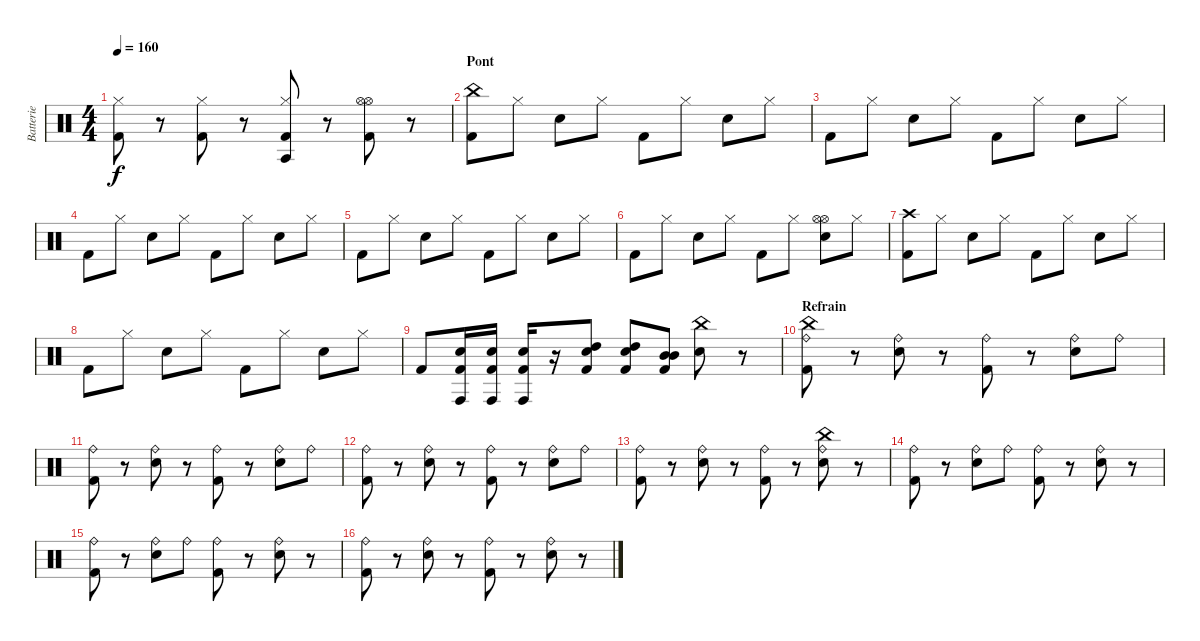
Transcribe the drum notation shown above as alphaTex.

\track ("Batterie" "Batterie") {instrument percussion}
\staff {score}
\articulation defaults
\ts (4 4)
\tempo 160
\clef neutral
\ks c
("Hi-Hat (closed)" "Kick (hit) 2").8{dy f} r.8 ("Hi-Hat (closed)" "Kick (hit) 2").8 r.8 ("Hi-Hat (closed)" "Agogo tow (hit)" "Kick (hit) 2").8 r.8 ("Hi-Hat (open)" "Hi-Hat (open)" "Kick (hit) 2").8 r.8 |
\section ("" "Pont")
("China (hit)" "Kick (hit) 2").8 "Hi-Hat (closed)".8 "Snare (hit) 2".8 "Hi-Hat (closed)".8 "Kick (hit) 2".8 "Hi-Hat (closed)".8 "Snare (hit) 2".8 "Hi-Hat (closed)".8 |
"Kick (hit) 2".8 "Hi-Hat (closed)".8 "Snare (hit) 2".8 "Hi-Hat (closed)".8 "Kick (hit) 2".8 "Hi-Hat (closed)".8 "Snare (hit) 2".8 "Hi-Hat (closed)".8 |
"Kick (hit) 2".8 "Hi-Hat (closed)".8 "Snare (hit) 2".8 "Hi-Hat (closed)".8 "Kick (hit) 2".8 "Hi-Hat (closed)".8 "Snare (hit) 2".8 "Hi-Hat (closed)".8 |
"Kick (hit) 2".8 "Hi-Hat (closed)".8 "Snare (hit) 2".8 "Hi-Hat (closed)".8 "Kick (hit) 2".8 "Hi-Hat (closed)".8 "Snare (hit) 2".8 "Hi-Hat (closed)".8 |
"Kick (hit) 2".8 "Hi-Hat (closed)".8 "Snare (hit) 2".8 "Hi-Hat (closed)".8 "Kick (hit) 2".8 "Hi-Hat (closed)".8 ("Hi-Hat (open)" "Hi-Hat (open)" "Snare (hit) 2").8 "Hi-Hat (closed)".8 |
("Crash high (hit)" "Kick (hit) 2").8 "Hi-Hat (closed)".8 "Snare (hit) 2".8 "Hi-Hat (closed)".8 "Kick (hit) 2".8 "Hi-Hat (closed)".8 "Snare (hit) 2".8 "Hi-Hat (closed)".8 |
"Kick (hit) 2".8 "Hi-Hat (closed)".8 "Snare (hit) 2".8 "Hi-Hat (closed)".8 "Kick (hit) 2".8 "Hi-Hat (closed)".8 "Snare (hit) 2".8 "Hi-Hat (closed)".8 |
"Kick (hit) 2".8 ("Conga high (hit)" "Snare (hit) 2" "Kick (hit) 2").16 ("Conga high (hit)" "Snare (hit) 2" "Kick (hit) 2").16 ("Conga high (hit)" "Snare (hit) 2" "Kick (hit) 2").16 r.16 ("High Tom (hit)" "Snare (hit) 2" "Kick (hit) 2").8 ("High Tom (hit)" "Snare (hit) 2" "Kick (hit) 2").8 ("Mid Tom (hit)" "Mid Tom (hit)" "Kick (hit) 2").8 ("China (hit)" "Snare (hit) 2").8 r.8 |
\section ("" "Refrain")
("China (hit)" "Ride (bell)" "Kick (hit) 2").8 r.8 ("Ride (bell)" "Snare (hit) 2").8 r.8 ("Ride (bell)" "Kick (hit) 2").8 r.8 ("Ride (bell)" "Snare (hit) 2").8 "Ride (bell)".8 |
("Ride (bell)" "Kick (hit) 2").8 r.8 ("Ride (bell)" "Snare (hit) 2").8 r.8 ("Ride (bell)" "Kick (hit) 2").8 r.8 ("Ride (bell)" "Snare (hit) 2").8 "Ride (bell)".8 |
("Ride (bell)" "Kick (hit) 2").8 r.8 ("Ride (bell)" "Snare (hit) 2").8 r.8 ("Ride (bell)" "Kick (hit) 2").8 r.8 ("Ride (bell)" "Snare (hit) 2").8 "Ride (bell)".8 |
("Ride (bell)" "Kick (hit) 2").8 r.8 ("Ride (bell)" "Snare (hit) 2").8 r.8 ("Ride (bell)" "Kick (hit) 2").8 r.8 ("China (hit)" "Ride (bell)" "Snare (hit) 2").8 r.8 |
("Ride (bell)" "Kick (hit) 2").8 r.8 ("Ride (bell)" "Snare (hit) 2").8 "Ride (bell)".8 ("Ride (bell)" "Kick (hit) 2").8 r.8 ("Ride (bell)" "Snare (hit) 2").8 r.8 |
("Ride (bell)" "Kick (hit) 2").8 r.8 ("Ride (bell)" "Snare (hit) 2").8 "Ride (bell)".8 ("Ride (bell)" "Kick (hit) 2").8 r.8 ("Ride (bell)" "Snare (hit) 2").8 r.8 |
("Ride (bell)" "Kick (hit) 2").8 r.8 ("Ride (bell)" "Snare (hit) 2").8 r.8 ("Ride (bell)" "Kick (hit) 2").8 r.8 ("Ride (bell)" "Snare (hit) 2").8 r.8
